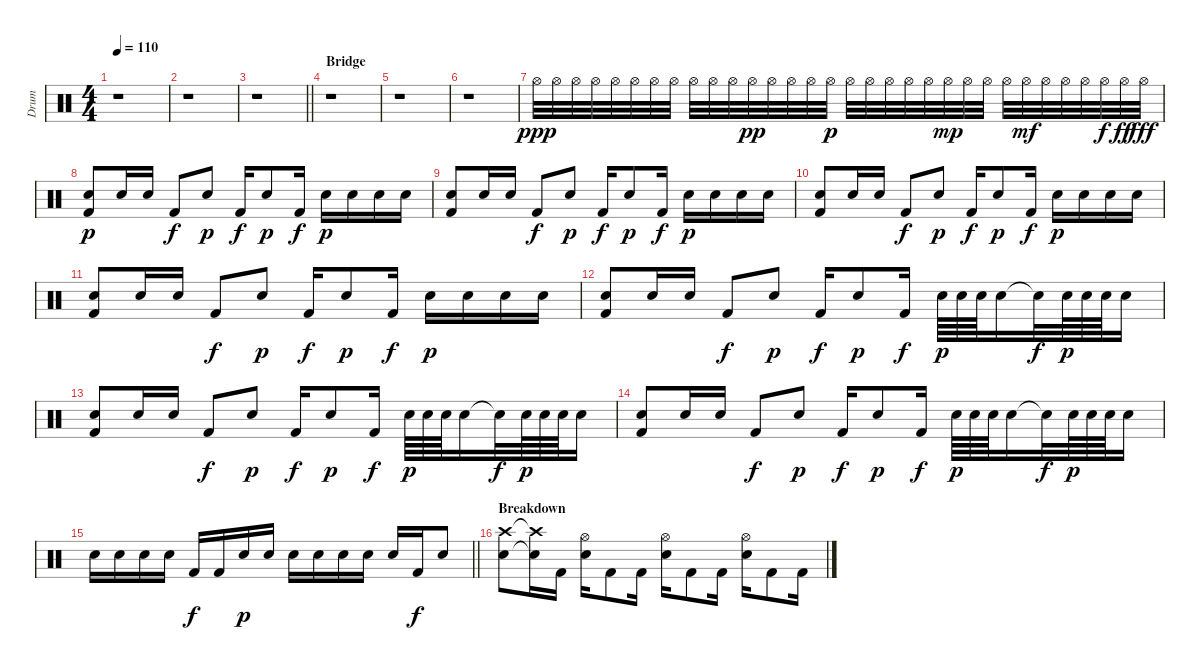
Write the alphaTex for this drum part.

\track ("Drum" "Drum") {instrument percussion}
\staff {score}
\articulation defaults
\ts (4 4)
\tempo 110
\clef neutral
\ks c
r.1{dy ff} |
r.1 |
\barLineRight lightlight
r.1 |
\section ("" "Bridge")
r.1 |
r.1 |
r.1 |
"Hi-Hat (open)".32{dy ppp} "Hi-Hat (open)".32 "Hi-Hat (open)".32 "Hi-Hat (open)".32 "Hi-Hat (open)".32 "Hi-Hat (open)".32 "Hi-Hat (open)".32 "Hi-Hat (open)".32 "Hi-Hat (open)".32 "Hi-Hat (open)".32 "Hi-Hat (open)".32 "Hi-Hat (open)".32{dy pp} "Hi-Hat (open)".32 "Hi-Hat (open)".32 "Hi-Hat (open)".32 "Hi-Hat (open)".32{dy p} "Hi-Hat (open)".32 "Hi-Hat (open)".32 "Hi-Hat (open)".32 "Hi-Hat (open)".32 "Hi-Hat (open)".32 "Hi-Hat (open)".32{dy mp} "Hi-Hat (open)".32 "Hi-Hat (open)".32 "Hi-Hat (open)".32 "Hi-Hat (open)".32{dy mf} "Hi-Hat (open)".32 "Hi-Hat (open)".32 "Hi-Hat (open)".32 "Hi-Hat (open)".32{dy f} "Hi-Hat (open)".32{dy ff} "Hi-Hat (open)".32{dy fff} |
("Snare (hit) 2" "Kick (hit) 2").8{dy p} "Snare (hit) 2".16 "Snare (hit) 2".16 "Kick (hit) 2".8{dy f} "Snare (hit) 2".8{dy p} "Kick (hit) 2".16{dy f} "Snare (hit) 2".8{dy p} "Kick (hit) 2".16{dy f} "Snare (hit) 2".16{dy p} "Snare (hit) 2".16 "Snare (hit) 2".16 "Snare (hit) 2".16 |
("Snare (hit) 2" "Kick (hit) 2").8 "Snare (hit) 2".16 "Snare (hit) 2".16 "Kick (hit) 2".8{dy f} "Snare (hit) 2".8{dy p} "Kick (hit) 2".16{dy f} "Snare (hit) 2".8{dy p} "Kick (hit) 2".16{dy f} "Snare (hit) 2".16{dy p} "Snare (hit) 2".16 "Snare (hit) 2".16 "Snare (hit) 2".16 |
("Snare (hit) 2" "Kick (hit) 2").8 "Snare (hit) 2".16 "Snare (hit) 2".16 "Kick (hit) 2".8{dy f} "Snare (hit) 2".8{dy p} "Kick (hit) 2".16{dy f} "Snare (hit) 2".8{dy p} "Kick (hit) 2".16{dy f} "Snare (hit) 2".16{dy p} "Snare (hit) 2".16 "Snare (hit) 2".16 "Snare (hit) 2".16 |
("Snare (hit) 2" "Kick (hit) 2").8 "Snare (hit) 2".16 "Snare (hit) 2".16 "Kick (hit) 2".8{dy f} "Snare (hit) 2".8{dy p} "Kick (hit) 2".16{dy f} "Snare (hit) 2".8{dy p} "Kick (hit) 2".16{dy f} "Snare (hit) 2".16{dy p} "Snare (hit) 2".16 "Snare (hit) 2".16 "Snare (hit) 2".16 |
("Snare (hit) 2" "Kick (hit) 2").8 "Snare (hit) 2".16 "Snare (hit) 2".16 "Kick (hit) 2".8{dy f} "Snare (hit) 2".8{dy p} "Kick (hit) 2".16{dy f} "Snare (hit) 2".8{dy p} "Kick (hit) 2".16{dy f} "Snare (hit) 2".64{dy p} "Snare (hit) 2".64 "Snare (hit) 2".64 "Snare (hit) 2".16 "Snare (hit) 2"{t}.32{dy f} "Snare (hit) 2".64{dy p} "Snare (hit) 2".64 "Snare (hit) 2".64 "Snare (hit) 2".16 |
("Snare (hit) 2" "Kick (hit) 2").8 "Snare (hit) 2".16 "Snare (hit) 2".16 "Kick (hit) 2".8{dy f} "Snare (hit) 2".8{dy p} "Kick (hit) 2".16{dy f} "Snare (hit) 2".8{dy p} "Kick (hit) 2".16{dy f} "Snare (hit) 2".64{dy p} "Snare (hit) 2".64 "Snare (hit) 2".64 "Snare (hit) 2".16 "Snare (hit) 2"{t}.32{dy f} "Snare (hit) 2".64{dy p} "Snare (hit) 2".64 "Snare (hit) 2".64 "Snare (hit) 2".16 |
("Snare (hit) 2" "Kick (hit) 2").8 "Snare (hit) 2".16 "Snare (hit) 2".16 "Kick (hit) 2".8{dy f} "Snare (hit) 2".8{dy p} "Kick (hit) 2".16{dy f} "Snare (hit) 2".8{dy p} "Kick (hit) 2".16{dy f} "Snare (hit) 2".64{dy p} "Snare (hit) 2".64 "Snare (hit) 2".64 "Snare (hit) 2".16 "Snare (hit) 2"{t}.32{dy f} "Snare (hit) 2".64{dy p} "Snare (hit) 2".64 "Snare (hit) 2".64 "Snare (hit) 2".16 |
\barLineRight lightlight "Snare (hit) 2".16 "Snare (hit) 2".16 "Snare (hit) 2".16 "Snare (hit) 2".16 "Kick (hit) 2".16{dy f} "Kick (hit) 2".16 "Snare (hit) 2".16{dy p} "Snare (hit) 2".16 "Snare (hit) 2".16 "Snare (hit) 2".16 "Snare (hit) 2".16 "Snare (hit) 2".16 "Snare (hit) 2".16 "Kick (hit) 2".16{dy f} "Snare (hit) 2".8
|
\section ("" "Breakdown")
("Snare (hit) 2" "Crash high (hit)").8 ("Snare (hit) 2"{t} "Crash high (hit)"{t}).16 "Kick (hit) 2".16 ("Snare (hit) 2" "Hi-Hat (open)").16 "Kick (hit) 2".8 "Kick (hit) 2".16 ("Snare (hit) 2" "Hi-Hat (open)").16 "Kick (hit) 2".8 "Kick (hit) 2".16 ("Snare (hit) 2" "Hi-Hat (open)").16 "Kick (hit) 2".8 "Kick (hit) 2".16
